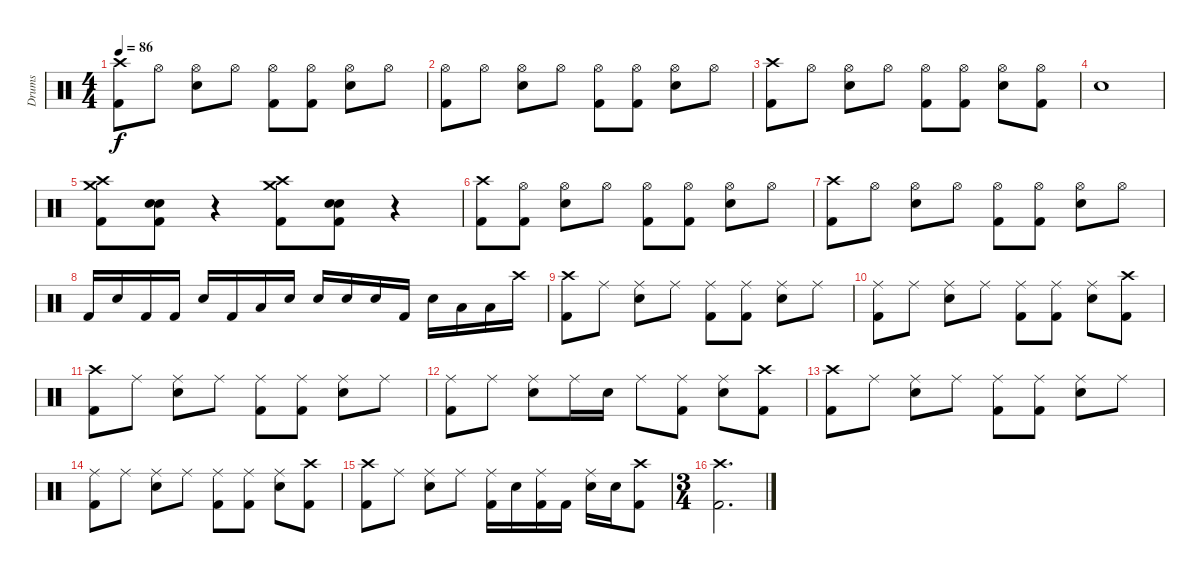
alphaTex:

\track ("Drums" "Drums") {instrument percussion}
\staff {score}
\articulation defaults
\ts (4 4)
\tempo 86
\clef neutral
\ks c
("Crash high (hit)" "Kick (hit) 2").8{dy f} "Hi-Hat (open)".8 ("Hi-Hat (open)" "Snare (hit) 2").8 "Hi-Hat (open)".8 ("Hi-Hat (open)" "Kick (hit) 2").8 ("Hi-Hat (open)" "Kick (hit) 2").8 ("Hi-Hat (open)" "Snare (hit) 2").8 "Hi-Hat (open)".8 |
("Hi-Hat (open)" "Kick (hit) 2").8 "Hi-Hat (open)".8 ("Hi-Hat (open)" "Snare (hit) 2").8 "Hi-Hat (open)".8 ("Hi-Hat (open)" "Kick (hit) 2").8 ("Hi-Hat (open)" "Kick (hit) 2").8 ("Hi-Hat (open)" "Snare (hit) 2").8 "Hi-Hat (open)".8 |
("Crash high (hit)" "Kick (hit) 2").8 "Hi-Hat (open)".8 ("Hi-Hat (open)" "Snare (hit) 2").8 "Hi-Hat (open)".8 ("Hi-Hat (open)" "Kick (hit) 2").8 ("Hi-Hat (open)" "Kick (hit) 2").8 ("Hi-Hat (open)" "Snare (hit) 2").8 ("Hi-Hat (open)" "Kick (hit) 2").8 |
"Snare (hit) 2".1 |
("Crash high (hit)" "Kick (hit) 2" "Crash medium (hit)").8 ("Snare (hit)"{x} "Kick (hit) 2" "Snare (hit)"{x}).8 r.4 ("Crash high (hit)" "Kick (hit) 2" "Crash medium (hit)").8 ("Snare (hit)"{x} "Kick (hit) 2" "Snare (hit)"{x}).8 r.4 |
("Crash high (hit)" "Kick (hit) 2").8 ("Hi-Hat (open)" "Kick (hit) 2").8 ("Hi-Hat (open)" "Snare (hit) 2").8 "Hi-Hat (open)".8 ("Hi-Hat (open)" "Kick (hit) 2").8 ("Hi-Hat (open)" "Kick (hit) 2").8 ("Hi-Hat (open)" "Snare (hit) 2").8 "Hi-Hat (open)".8 |
("Crash high (hit)" "Kick (hit) 2").8 "Hi-Hat (open)".8 ("Hi-Hat (open)" "Snare (hit) 2").8 "Hi-Hat (open)".8 ("Hi-Hat (open)" "Kick (hit) 2").8 ("Hi-Hat (open)" "Kick (hit) 2").8 ("Hi-Hat (open)" "Snare (hit) 2").8 "Hi-Hat (open)".8 |
"Kick (hit) 2".16 "Snare (hit) 2".16 "Kick (hit) 2".16 "Kick (hit) 2".16 "Snare (hit) 2".16 "Kick (hit) 2".16 "Low Tom (hit)".16 "Snare (hit) 2".16 "Snare (hit) 2".16 "Snare (hit) 2".16 "Snare (hit) 2".16 "Kick (hit) 2".16 "Snare (hit) 2".16 "Low Tom (hit)".16 "Low Tom (hit)".16 "Crash high (hit)".16 |
("Crash high (hit)" "Kick (hit) 2").8 "Ride (middle)".8 ("Ride (middle)" "Snare (hit) 2").8 "Ride (middle)".8 ("Ride (middle)" "Kick (hit) 2").8 ("Ride (middle)" "Kick (hit) 2").8 ("Ride (middle)" "Snare (hit) 2").8 "Ride (middle)".8 |
("Ride (middle)" "Kick (hit) 2").8 "Ride (middle)".8 ("Ride (middle)" "Snare (hit) 2").8 "Ride (middle)".8 ("Ride (middle)" "Kick (hit) 2").8 ("Ride (middle)" "Kick (hit) 2").8 ("Ride (middle)" "Snare (hit) 2").8 ("Crash high (hit)" "Kick (hit) 2").8 |
("Crash high (hit)" "Kick (hit) 2").8 "Ride (middle)".8 ("Ride (middle)" "Snare (hit) 2").8 "Ride (middle)".8 ("Ride (middle)" "Kick (hit) 2").8 ("Ride (middle)" "Kick (hit) 2").8 ("Ride (middle)" "Snare (hit) 2").8 "Ride (middle)".8 |
("Ride (middle)" "Kick (hit) 2").8 "Ride (middle)".8 ("Ride (middle)" "Snare (hit) 2").8 "Ride (middle)".16 "Snare (hit) 2".16 "Ride (middle)".8 ("Ride (middle)" "Kick (hit) 2").8 ("Ride (middle)" "Snare (hit) 2").8 ("Crash high (hit)" "Kick (hit) 2").8 |
("Crash high (hit)" "Kick (hit) 2").8 "Ride (middle)".8 ("Ride (middle)" "Snare (hit) 2").8 "Ride (middle)".8 ("Ride (middle)" "Kick (hit) 2").8 ("Ride (middle)" "Kick (hit) 2").8 ("Ride (middle)" "Snare (hit) 2").8 "Ride (middle)".8 |
("Ride (middle)" "Kick (hit) 2").8 "Ride (middle)".8 ("Ride (middle)" "Snare (hit) 2").8 "Ride (middle)".8 ("Ride (middle)" "Kick (hit) 2").8 ("Ride (middle)" "Kick (hit) 2").8 ("Ride (middle)" "Snare (hit) 2").8 ("Crash high (hit)" "Kick (hit) 2").8 |
("Crash high (hit)" "Kick (hit) 2").8 "Ride (middle)".8 ("Ride (middle)" "Snare (hit) 2").8 "Ride (middle)".8 ("Ride (middle)" "Kick (hit) 2").16 "Snare (hit) 2".16 ("Ride (middle)" "Kick (hit) 2").16 "Kick (hit) 2".16 ("Ride (middle)" "Snare (hit) 2").16 "Snare (hit) 2".16 ("Crash high (hit)" "Kick (hit) 2").8 |
\ts (3 4)
("Crash high (hit)" "Kick (hit) 2").2{d}
